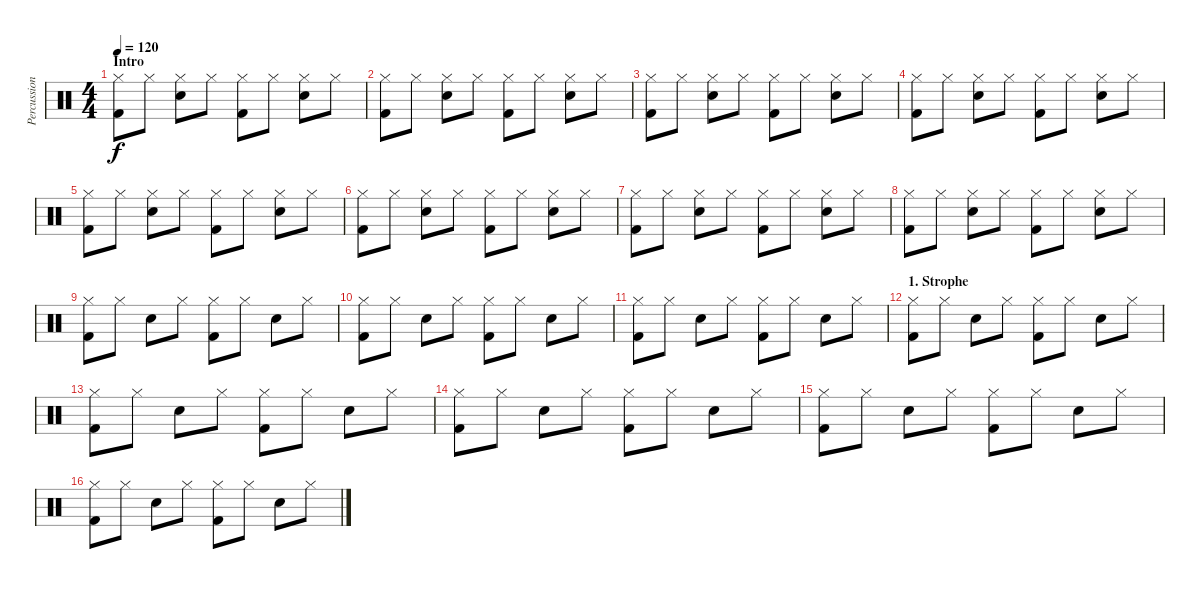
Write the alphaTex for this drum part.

\track ("Percussion (Bela)" "Percussion") {instrument percussion}
\staff {score}
\articulation defaults
\ts (4 4)
\section ("" "Intro")
\tempo 120
\clef neutral
\ks c
("Hi-Hat (closed)" "Kick (hit) 2").8{dy f} "Hi-Hat (closed)".8 ("Hi-Hat (closed)" "Electric Snare (hit)").8 "Hi-Hat (closed)".8 ("Hi-Hat (closed)" "Kick (hit) 2").8 "Hi-Hat (closed)".8 ("Hi-Hat (closed)" "Electric Snare (hit)").8 "Hi-Hat (closed)".8 |
("Hi-Hat (closed)" "Kick (hit) 2").8 "Hi-Hat (closed)".8 ("Hi-Hat (closed)" "Electric Snare (hit)").8 "Hi-Hat (closed)".8 ("Hi-Hat (closed)" "Kick (hit) 2").8 "Hi-Hat (closed)".8 ("Hi-Hat (closed)" "Electric Snare (hit)").8 "Hi-Hat (closed)".8 |
("Hi-Hat (closed)" "Kick (hit) 2").8 "Hi-Hat (closed)".8 ("Hi-Hat (closed)" "Electric Snare (hit)").8 "Hi-Hat (closed)".8 ("Hi-Hat (closed)" "Kick (hit) 2").8 "Hi-Hat (closed)".8 ("Hi-Hat (closed)" "Electric Snare (hit)").8 "Hi-Hat (closed)".8 |
("Hi-Hat (closed)" "Kick (hit) 2").8 "Hi-Hat (closed)".8 ("Hi-Hat (closed)" "Electric Snare (hit)").8 "Hi-Hat (closed)".8 ("Hi-Hat (closed)" "Kick (hit) 2").8 "Hi-Hat (closed)".8 ("Hi-Hat (closed)" "Electric Snare (hit)").8 "Hi-Hat (closed)".8 |
("Hi-Hat (closed)" "Kick (hit) 2").8 "Hi-Hat (closed)".8 ("Hi-Hat (closed)" "Electric Snare (hit)").8 "Hi-Hat (closed)".8 ("Hi-Hat (closed)" "Kick (hit) 2").8 "Hi-Hat (closed)".8 ("Hi-Hat (closed)" "Electric Snare (hit)").8 "Hi-Hat (closed)".8 |
("Hi-Hat (closed)" "Kick (hit) 2").8 "Hi-Hat (closed)".8 ("Hi-Hat (closed)" "Electric Snare (hit)").8 "Hi-Hat (closed)".8 ("Hi-Hat (closed)" "Kick (hit) 2").8 "Hi-Hat (closed)".8 ("Hi-Hat (closed)" "Electric Snare (hit)").8 "Hi-Hat (closed)".8 |
("Hi-Hat (closed)" "Kick (hit) 2").8 "Hi-Hat (closed)".8 ("Hi-Hat (closed)" "Electric Snare (hit)").8 "Hi-Hat (closed)".8 ("Hi-Hat (closed)" "Kick (hit) 2").8 "Hi-Hat (closed)".8 ("Hi-Hat (closed)" "Electric Snare (hit)").8 "Hi-Hat (closed)".8 |
("Hi-Hat (closed)" "Kick (hit) 2").8 "Hi-Hat (closed)".8 ("Hi-Hat (closed)" "Electric Snare (hit)").8 "Hi-Hat (closed)".8 ("Hi-Hat (closed)" "Kick (hit) 2").8 "Hi-Hat (closed)".8 ("Hi-Hat (closed)" "Electric Snare (hit)").8 "Hi-Hat (closed)".8 |
("Hi-Hat (closed)" "Kick (hit) 2").8 "Hi-Hat (closed)".8 "Electric Snare (hit)".8 "Hi-Hat (closed)".8 ("Hi-Hat (closed)" "Kick (hit) 2").8 "Hi-Hat (closed)".8 "Electric Snare (hit)".8 "Hi-Hat (closed)".8 |
("Hi-Hat (closed)" "Kick (hit) 2").8 "Hi-Hat (closed)".8 "Electric Snare (hit)".8 "Hi-Hat (closed)".8 ("Hi-Hat (closed)" "Kick (hit) 2").8 "Hi-Hat (closed)".8 "Electric Snare (hit)".8 "Hi-Hat (closed)".8 |
("Hi-Hat (closed)" "Kick (hit) 2").8 "Hi-Hat (closed)".8 "Electric Snare (hit)".8 "Hi-Hat (closed)".8 ("Hi-Hat (closed)" "Kick (hit) 2").8 "Hi-Hat (closed)".8 "Electric Snare (hit)".8 "Hi-Hat (closed)".8 |
\section ("" "1. Strophe")
("Hi-Hat (closed)" "Kick (hit) 2").8 "Hi-Hat (closed)".8 "Electric Snare (hit)".8 "Hi-Hat (closed)".8 ("Hi-Hat (closed)" "Kick (hit) 2").8 "Hi-Hat (closed)".8 "Electric Snare (hit)".8 "Hi-Hat (closed)".8 |
("Hi-Hat (closed)" "Kick (hit) 2").8 "Hi-Hat (closed)".8 "Electric Snare (hit)".8 "Hi-Hat (closed)".8 ("Hi-Hat (closed)" "Kick (hit) 2").8 "Hi-Hat (closed)".8 "Electric Snare (hit)".8 "Hi-Hat (closed)".8 |
("Hi-Hat (closed)" "Kick (hit) 2").8 "Hi-Hat (closed)".8 "Electric Snare (hit)".8 "Hi-Hat (closed)".8 ("Hi-Hat (closed)" "Kick (hit) 2").8 "Hi-Hat (closed)".8 "Electric Snare (hit)".8 "Hi-Hat (closed)".8 |
("Hi-Hat (closed)" "Kick (hit) 2").8 "Hi-Hat (closed)".8 "Electric Snare (hit)".8 "Hi-Hat (closed)".8 ("Hi-Hat (closed)" "Kick (hit) 2").8 "Hi-Hat (closed)".8 "Electric Snare (hit)".8 "Hi-Hat (closed)".8 |
("Hi-Hat (closed)" "Kick (hit) 2").8 "Hi-Hat (closed)".8 "Electric Snare (hit)".8 "Hi-Hat (closed)".8 ("Hi-Hat (closed)" "Kick (hit) 2").8 "Hi-Hat (closed)".8 "Electric Snare (hit)".8 "Hi-Hat (closed)".8
